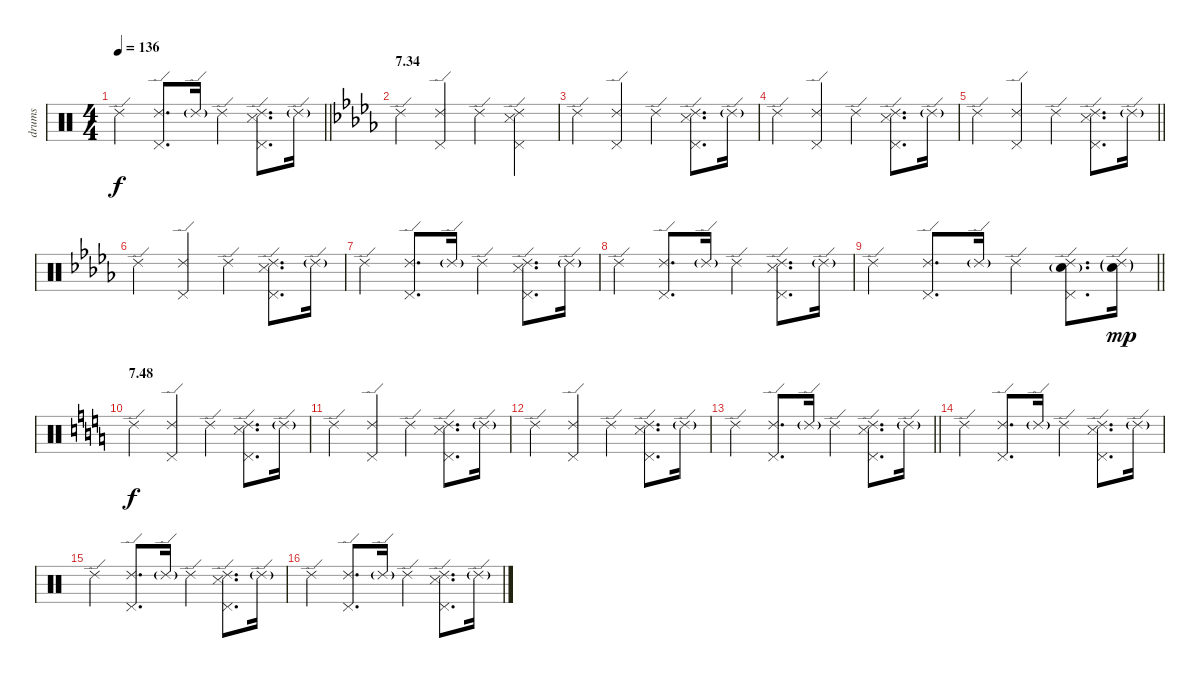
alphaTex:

\track ("drums" "drums") {instrument percussion}
\staff {score}
\articulation defaults
\ts (4 4)
\tempo 136
\clef neutral
\barLineRight lightlight
\ks c "Ride (edge) 2".4{dy f}
("Ride (edge) 2" "Pedal Hi-Hat (hit)").8{d} "Ride (edge) 2"{g}.16 "Ride (edge) 2".4 ("Ride (edge) 2" "Pedal Hi-Hat (hit)" "Snare (side stick) 3").8{d} "Ride (edge) 2"{g}.16 |
\section ("" "7.34")
\ks db "Ride (edge) 2".4
("Ride (edge) 2" "Pedal Hi-Hat (hit)").4 "Ride (edge) 2".4 ("Ride (edge) 2" "Pedal Hi-Hat (hit)" "Snare (side stick) 3").4 |
"Ride (edge) 2".4 ("Ride (edge) 2" "Pedal Hi-Hat (hit)").4 "Ride (edge) 2".4 ("Ride (edge) 2" "Pedal Hi-Hat (hit)" "Snare (side stick) 3").8{d} "Ride (edge) 2"{g}.16 |
"Ride (edge) 2".4 ("Ride (edge) 2" "Pedal Hi-Hat (hit)").4 "Ride (edge) 2".4 ("Ride (edge) 2" "Pedal Hi-Hat (hit)" "Snare (side stick) 3").8{d} "Ride (edge) 2"{g}.16 |
\barLineRight lightlight "Ride (edge) 2".4
("Ride (edge) 2" "Pedal Hi-Hat (hit)").4 "Ride (edge) 2".4 ("Ride (edge) 2" "Pedal Hi-Hat (hit)" "Snare (side stick) 3").8{d} "Ride (edge) 2"{g}.16 |
"Ride (edge) 2".4 ("Ride (edge) 2" "Pedal Hi-Hat (hit)").4 "Ride (edge) 2".4 ("Ride (edge) 2" "Pedal Hi-Hat (hit)" "Snare (side stick) 3").8{d} "Ride (edge) 2"{g}.16 |
"Ride (edge) 2".4 ("Ride (edge) 2" "Pedal Hi-Hat (hit)").8{d} "Ride (edge) 2"{g}.16 "Ride (edge) 2".4 ("Ride (edge) 2" "Pedal Hi-Hat (hit)" "Snare (side stick) 3").8{d} "Ride (edge) 2"{g}.16 |
"Ride (edge) 2".4 ("Ride (edge) 2" "Pedal Hi-Hat (hit)").8{d} "Ride (edge) 2"{g}.16 "Ride (edge) 2".4 ("Ride (edge) 2" "Pedal Hi-Hat (hit)" "Snare (side stick) 3").8{d} "Ride (edge) 2"{g}.16 |
\barLineRight lightlight "Ride (edge) 2".4
("Ride (edge) 2" "Pedal Hi-Hat (hit)").8{d} "Ride (edge) 2"{g}.16 "Ride (edge) 2".4 ("Ride (edge) 2" "Pedal Hi-Hat (hit)" "Electric Snare (hit)"{g}).8{d} ("Ride (edge) 2"{g} "Electric Snare (hit)"{g}).16{dy mp} |
\section ("" "7.48")
\ks c "Ride (edge) 2".4{dy f}
("Ride (edge) 2" "Pedal Hi-Hat (hit)").4 "Ride (edge) 2".4 ("Ride (edge) 2" "Pedal Hi-Hat (hit)" "Snare (side stick) 3").8{d} "Ride (edge) 2"{g}.16 |
"Ride (edge) 2".4 ("Ride (edge) 2" "Pedal Hi-Hat (hit)").4 "Ride (edge) 2".4 ("Ride (edge) 2" "Pedal Hi-Hat (hit)" "Snare (side stick) 3").8{d} "Ride (edge) 2"{g}.16 |
"Ride (edge) 2".4 ("Ride (edge) 2" "Pedal Hi-Hat (hit)").4 "Ride (edge) 2".4 ("Ride (edge) 2" "Pedal Hi-Hat (hit)" "Snare (side stick) 3").8{d} "Ride (edge) 2"{g}.16 |
\barLineRight lightlight "Ride (edge) 2".4
("Ride (edge) 2" "Pedal Hi-Hat (hit)").8{d} "Ride (edge) 2"{g}.16 "Ride (edge) 2".4 ("Ride (edge) 2" "Pedal Hi-Hat (hit)" "Snare (side stick) 3").8{d} "Ride (edge) 2"{g}.16 |
"Ride (edge) 2".4 ("Ride (edge) 2" "Pedal Hi-Hat (hit)").8{d} "Ride (edge) 2"{g}.16 "Ride (edge) 2".4 ("Ride (edge) 2" "Pedal Hi-Hat (hit)" "Snare (side stick) 3").8{d} "Ride (edge) 2"{g}.16 |
"Ride (edge) 2".4 ("Ride (edge) 2" "Pedal Hi-Hat (hit)").8{d} "Ride (edge) 2"{g}.16 "Ride (edge) 2".4 ("Ride (edge) 2" "Pedal Hi-Hat (hit)" "Snare (side stick) 3").8{d} "Ride (edge) 2"{g}.16 |
"Ride (edge) 2".4 ("Ride (edge) 2" "Pedal Hi-Hat (hit)").8{d} "Ride (edge) 2"{g}.16 "Ride (edge) 2".4 ("Ride (edge) 2" "Pedal Hi-Hat (hit)" "Snare (side stick) 3").8{d} "Ride (edge) 2"{g}.16
